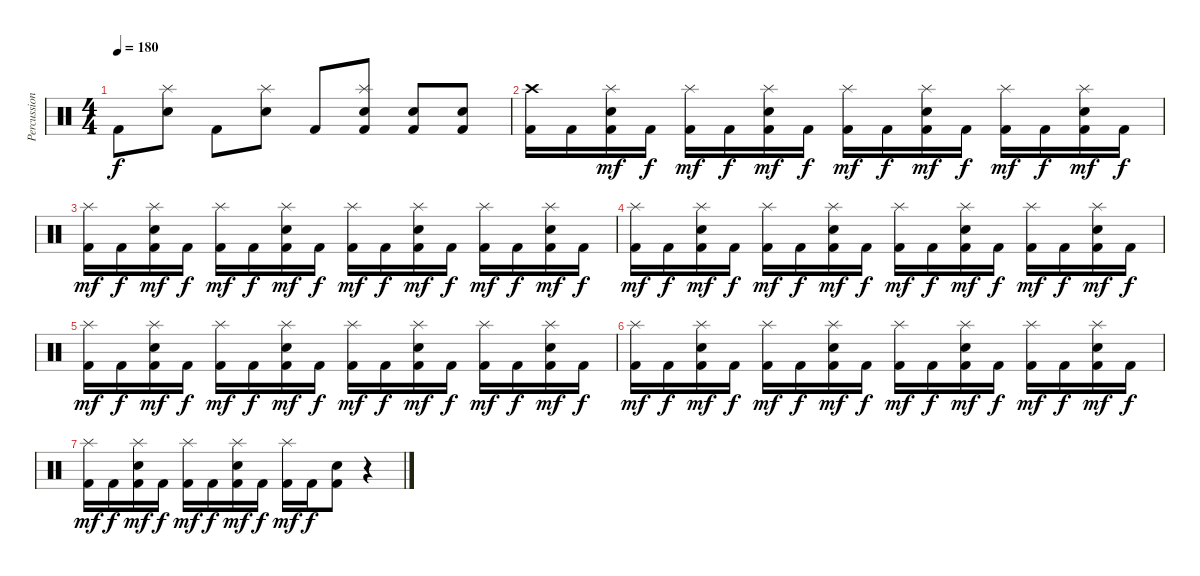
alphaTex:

\track ("Percussion" "Percussion") {instrument percussion}
\staff {score}
\articulation defaults
\ts (4 4)
\tempo 180
\clef neutral
\ks c "Kick (hit) 2".8{dy f volume 12}
("Splash (hit)" "Snare (hit) 2").8 "Kick (hit) 2".8 ("Splash (hit)" "Snare (hit) 2").8 "Kick (hit) 2".8 ("Splash (hit)" "Snare (hit) 2" "Kick (hit) 2").8 ("Snare (hit) 2" "Kick (hit) 2").8 ("Snare (hit) 2" "Kick (hit) 2").8 |
("Crash high (hit)" "Kick (hit) 2").16{volume 10} "Kick (hit) 2".16 ("Splash (hit)" "Snare (hit) 2" "Kick (hit) 2").16{dy mf} "Kick (hit) 2".16{dy f} ("Splash (hit)" "Kick (hit) 2").16{dy mf} "Kick (hit) 2".16{dy f} ("Splash (hit)" "Snare (hit) 2" "Kick (hit) 2").16{dy mf} "Kick (hit) 2".16{dy f} ("Splash (hit)" "Kick (hit) 2").16{dy mf} "Kick (hit) 2".16{dy f} ("Splash (hit)" "Snare (hit) 2" "Kick (hit) 2").16{dy mf} "Kick (hit) 2".16{dy f} ("Splash (hit)" "Kick (hit) 2").16{dy mf} "Kick (hit) 2".16{dy f} ("Splash (hit)" "Snare (hit) 2" "Kick (hit) 2").16{dy mf} "Kick (hit) 2".16{dy f} |
("Splash (hit)" "Kick (hit) 2").16{dy mf volume 8} "Kick (hit) 2".16{dy f} ("Splash (hit)" "Snare (hit) 2" "Kick (hit) 2").16{dy mf} "Kick (hit) 2".16{dy f} ("Splash (hit)" "Kick (hit) 2").16{dy mf} "Kick (hit) 2".16{dy f} ("Splash (hit)" "Snare (hit) 2" "Kick (hit) 2").16{dy mf} "Kick (hit) 2".16{dy f} ("Splash (hit)" "Kick (hit) 2").16{dy mf} "Kick (hit) 2".16{dy f} ("Splash (hit)" "Snare (hit) 2" "Kick (hit) 2").16{dy mf} "Kick (hit) 2".16{dy f} ("Splash (hit)" "Kick (hit) 2").16{dy mf} "Kick (hit) 2".16{dy f} ("Splash (hit)" "Snare (hit) 2" "Kick (hit) 2").16{dy mf} "Kick (hit) 2".16{dy f} |
("Splash (hit)" "Kick (hit) 2").16{dy mf volume 6} "Kick (hit) 2".16{dy f} ("Splash (hit)" "Snare (hit) 2" "Kick (hit) 2").16{dy mf} "Kick (hit) 2".16{dy f} ("Splash (hit)" "Kick (hit) 2").16{dy mf} "Kick (hit) 2".16{dy f} ("Splash (hit)" "Snare (hit) 2" "Kick (hit) 2").16{dy mf} "Kick (hit) 2".16{dy f} ("Splash (hit)" "Kick (hit) 2").16{dy mf} "Kick (hit) 2".16{dy f} ("Splash (hit)" "Snare (hit) 2" "Kick (hit) 2").16{dy mf} "Kick (hit) 2".16{dy f} ("Splash (hit)" "Kick (hit) 2").16{dy mf} "Kick (hit) 2".16{dy f} ("Splash (hit)" "Snare (hit) 2" "Kick (hit) 2").16{dy mf} "Kick (hit) 2".16{dy f} |
("Splash (hit)" "Kick (hit) 2").16{dy mf volume 4} "Kick (hit) 2".16{dy f} ("Splash (hit)" "Snare (hit) 2" "Kick (hit) 2").16{dy mf} "Kick (hit) 2".16{dy f} ("Splash (hit)" "Kick (hit) 2").16{dy mf} "Kick (hit) 2".16{dy f} ("Splash (hit)" "Snare (hit) 2" "Kick (hit) 2").16{dy mf} "Kick (hit) 2".16{dy f} ("Splash (hit)" "Kick (hit) 2").16{dy mf} "Kick (hit) 2".16{dy f} ("Splash (hit)" "Snare (hit) 2" "Kick (hit) 2").16{dy mf} "Kick (hit) 2".16{dy f} ("Splash (hit)" "Kick (hit) 2").16{dy mf} "Kick (hit) 2".16{dy f} ("Splash (hit)" "Snare (hit) 2" "Kick (hit) 2").16{dy mf} "Kick (hit) 2".16{dy f} |
("Splash (hit)" "Kick (hit) 2").16{dy mf volume 2} "Kick (hit) 2".16{dy f} ("Splash (hit)" "Snare (hit) 2" "Kick (hit) 2").16{dy mf} "Kick (hit) 2".16{dy f} ("Splash (hit)" "Kick (hit) 2").16{dy mf} "Kick (hit) 2".16{dy f} ("Splash (hit)" "Snare (hit) 2" "Kick (hit) 2").16{dy mf} "Kick (hit) 2".16{dy f} ("Splash (hit)" "Kick (hit) 2").16{dy mf} "Kick (hit) 2".16{dy f} ("Splash (hit)" "Snare (hit) 2" "Kick (hit) 2").16{dy mf} "Kick (hit) 2".16{dy f} ("Splash (hit)" "Kick (hit) 2").16{dy mf} "Kick (hit) 2".16{dy f} ("Splash (hit)" "Snare (hit) 2" "Kick (hit) 2").16{dy mf} "Kick (hit) 2".16{dy f} |
("Splash (hit)" "Kick (hit) 2").16{dy mf volume 0} "Kick (hit) 2".16{dy f} ("Splash (hit)" "Snare (hit) 2" "Kick (hit) 2").16{dy mf} "Kick (hit) 2".16{dy f} ("Splash (hit)" "Kick (hit) 2").16{dy mf} "Kick (hit) 2".16{dy f} ("Splash (hit)" "Snare (hit) 2" "Kick (hit) 2").16{dy mf} "Kick (hit) 2".16{dy f} ("Splash (hit)" "Kick (hit) 2").16{dy mf} "Kick (hit) 2".16{dy f} ("Snare (hit) 2" "Kick (hit) 2").8 r.4
